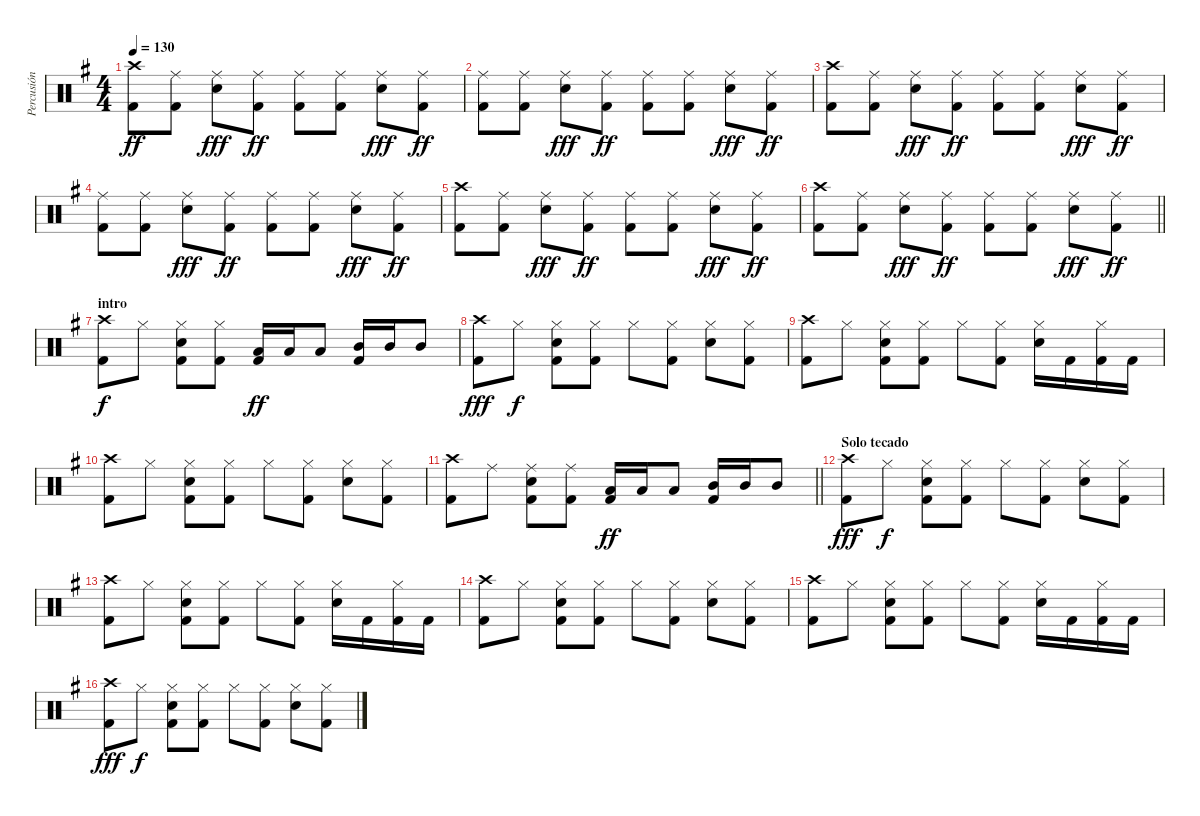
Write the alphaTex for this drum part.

\track ("Percusión" "Percusión") {instrument percussion}
\staff {score}
\articulation defaults
\ts (4 4)
\tempo 130
\clef neutral
\ks g
("Crash high (hit)" "Kick (hit) 2").8{dy ff} ("Ride (middle)" "Kick (hit) 2").8 ("Ride (middle)" "Snare (hit) 2").8{dy fff} ("Ride (middle)" "Kick (hit) 2").8{dy ff} ("Ride (middle)" "Kick (hit) 2").8 ("Ride (middle)" "Kick (hit) 2").8 ("Ride (middle)" "Snare (hit) 2").8{dy fff} ("Ride (middle)" "Kick (hit) 2").8{dy ff} |
("Ride (middle)" "Kick (hit) 2").8 ("Ride (middle)" "Kick (hit) 2").8 ("Ride (middle)" "Snare (hit) 2").8{dy fff} ("Ride (middle)" "Kick (hit) 2").8{dy ff} ("Ride (middle)" "Kick (hit) 2").8 ("Ride (middle)" "Kick (hit) 2").8 ("Ride (middle)" "Snare (hit) 2").8{dy fff} ("Ride (middle)" "Kick (hit) 2").8{dy ff} |
("Crash high (hit)" "Kick (hit) 2").8 ("Ride (middle)" "Kick (hit) 2").8 ("Ride (middle)" "Snare (hit) 2").8{dy fff} ("Ride (middle)" "Kick (hit) 2").8{dy ff} ("Ride (middle)" "Kick (hit) 2").8 ("Ride (middle)" "Kick (hit) 2").8 ("Ride (middle)" "Snare (hit) 2").8{dy fff} ("Ride (middle)" "Kick (hit) 2").8{dy ff} |
("Ride (middle)" "Kick (hit) 2").8 ("Ride (middle)" "Kick (hit) 2").8 ("Ride (middle)" "Snare (hit) 2").8{dy fff} ("Ride (middle)" "Kick (hit) 2").8{dy ff} ("Ride (middle)" "Kick (hit) 2").8 ("Ride (middle)" "Kick (hit) 2").8 ("Ride (middle)" "Snare (hit) 2").8{dy fff} ("Ride (middle)" "Kick (hit) 2").8{dy ff} |
("Crash high (hit)" "Kick (hit) 2").8 ("Ride (middle)" "Kick (hit) 2").8 ("Ride (middle)" "Snare (hit) 2").8{dy fff} ("Ride (middle)" "Kick (hit) 2").8{dy ff} ("Ride (middle)" "Kick (hit) 2").8 ("Ride (middle)" "Kick (hit) 2").8 ("Ride (middle)" "Snare (hit) 2").8{dy fff} ("Ride (middle)" "Kick (hit) 2").8{dy ff} |
\barLineRight lightlight
("Crash high (hit)" "Kick (hit) 2").8 ("Ride (middle)" "Kick (hit) 2").8 ("Ride (middle)" "Snare (hit) 2").8{dy fff} ("Ride (middle)" "Kick (hit) 2").8{dy ff} ("Ride (middle)" "Kick (hit) 2").8 ("Ride (middle)" "Kick (hit) 2").8 ("Ride (middle)" "Snare (hit) 2").8{dy fff} ("Ride (middle)" "Kick (hit) 2").8{dy ff} |
\section ("" "intro")
("Crash high (hit)" "Kick (hit) 2").8{dy f} "Hi-Hat (closed)".8 ("Hi-Hat (closed)" "Snare (hit) 2" "Kick (hit) 2").8 ("Hi-Hat (closed)" "Kick (hit) 2").8 ("Low Tom (hit)" "Kick (hit) 2").16{dy ff} "Low Tom (hit)".16 "Low Tom (hit)".8 ("Mid Tom (hit)" "Kick (hit) 2").16 "Mid Tom (hit)".16 "Mid Tom (hit)".8 |
("Crash high (hit)" "Kick (hit) 2").8{dy fff} "Hi-Hat (closed)".8{dy f} ("Hi-Hat (closed)" "Snare (hit) 2" "Kick (hit) 2").8 ("Hi-Hat (closed)" "Kick (hit) 2").8 "Hi-Hat (closed)".8 ("Hi-Hat (closed)" "Kick (hit) 2").8 ("Hi-Hat (closed)" "Snare (hit) 2").8 ("Hi-Hat (closed)" "Kick (hit) 2").8 |
("Crash high (hit)" "Kick (hit) 2").8 "Hi-Hat (closed)".8 ("Hi-Hat (closed)" "Snare (hit) 2" "Kick (hit) 2").8 ("Hi-Hat (closed)" "Kick (hit) 2").8 "Hi-Hat (closed)".8 ("Hi-Hat (closed)" "Kick (hit) 2").8 ("Hi-Hat (closed)" "Snare (hit) 2").16 "Kick (hit) 2".16 ("Hi-Hat (closed)" "Kick (hit) 2").16 "Kick (hit) 2".16 |
("Crash high (hit)" "Kick (hit) 2").8 "Hi-Hat (closed)".8 ("Hi-Hat (closed)" "Snare (hit) 2" "Kick (hit) 2").8 ("Hi-Hat (closed)" "Kick (hit) 2").8 "Hi-Hat (closed)".8 ("Hi-Hat (closed)" "Kick (hit) 2").8 ("Hi-Hat (closed)" "Snare (hit) 2").8 ("Hi-Hat (closed)" "Kick (hit) 2").8 |
\barLineRight lightlight
("Crash high (hit)" "Kick (hit) 2").8 "Ride (middle)".8 ("Ride (middle)" "Snare (hit) 2" "Kick (hit) 2").8 ("Ride (middle)" "Kick (hit) 2").8 ("Low Tom (hit)" "Kick (hit) 2").16{dy ff} "Low Tom (hit)".16 "Low Tom (hit)".8 ("Mid Tom (hit)" "Kick (hit) 2").16 "Mid Tom (hit)".16 "Mid Tom (hit)".8 |
\section ("" "Solo tecado")
("Crash high (hit)" "Kick (hit) 2").8{dy fff} "Hi-Hat (closed)".8{dy f} ("Hi-Hat (closed)" "Snare (hit) 2" "Kick (hit) 2").8 ("Hi-Hat (closed)" "Kick (hit) 2").8 "Hi-Hat (closed)".8 ("Hi-Hat (closed)" "Kick (hit) 2").8 ("Hi-Hat (closed)" "Snare (hit) 2").8 ("Hi-Hat (closed)" "Kick (hit) 2").8 |
("Crash high (hit)" "Kick (hit) 2").8 "Hi-Hat (closed)".8 ("Hi-Hat (closed)" "Snare (hit) 2" "Kick (hit) 2").8 ("Hi-Hat (closed)" "Kick (hit) 2").8 "Hi-Hat (closed)".8 ("Hi-Hat (closed)" "Kick (hit) 2").8 ("Hi-Hat (closed)" "Snare (hit) 2").16 "Kick (hit) 2".16 ("Hi-Hat (closed)" "Kick (hit) 2").16 "Kick (hit) 2".16 |
("Crash high (hit)" "Kick (hit) 2").8 "Hi-Hat (closed)".8 ("Hi-Hat (closed)" "Snare (hit) 2" "Kick (hit) 2").8 ("Hi-Hat (closed)" "Kick (hit) 2").8 "Hi-Hat (closed)".8 ("Hi-Hat (closed)" "Kick (hit) 2").8 ("Hi-Hat (closed)" "Snare (hit) 2").8 ("Hi-Hat (closed)" "Kick (hit) 2").8 |
("Crash high (hit)" "Kick (hit) 2").8 "Hi-Hat (closed)".8 ("Hi-Hat (closed)" "Snare (hit) 2" "Kick (hit) 2").8 ("Hi-Hat (closed)" "Kick (hit) 2").8 "Hi-Hat (closed)".8 ("Hi-Hat (closed)" "Kick (hit) 2").8 ("Hi-Hat (closed)" "Snare (hit) 2").16 "Kick (hit) 2".16 ("Hi-Hat (closed)" "Kick (hit) 2").16 "Kick (hit) 2".16 |
("Crash high (hit)" "Kick (hit) 2").8{dy fff} "Hi-Hat (closed)".8{dy f} ("Hi-Hat (closed)" "Snare (hit) 2" "Kick (hit) 2").8 ("Hi-Hat (closed)" "Kick (hit) 2").8 "Hi-Hat (closed)".8 ("Hi-Hat (closed)" "Kick (hit) 2").8 ("Hi-Hat (closed)" "Snare (hit) 2").8 ("Hi-Hat (closed)" "Kick (hit) 2").8
